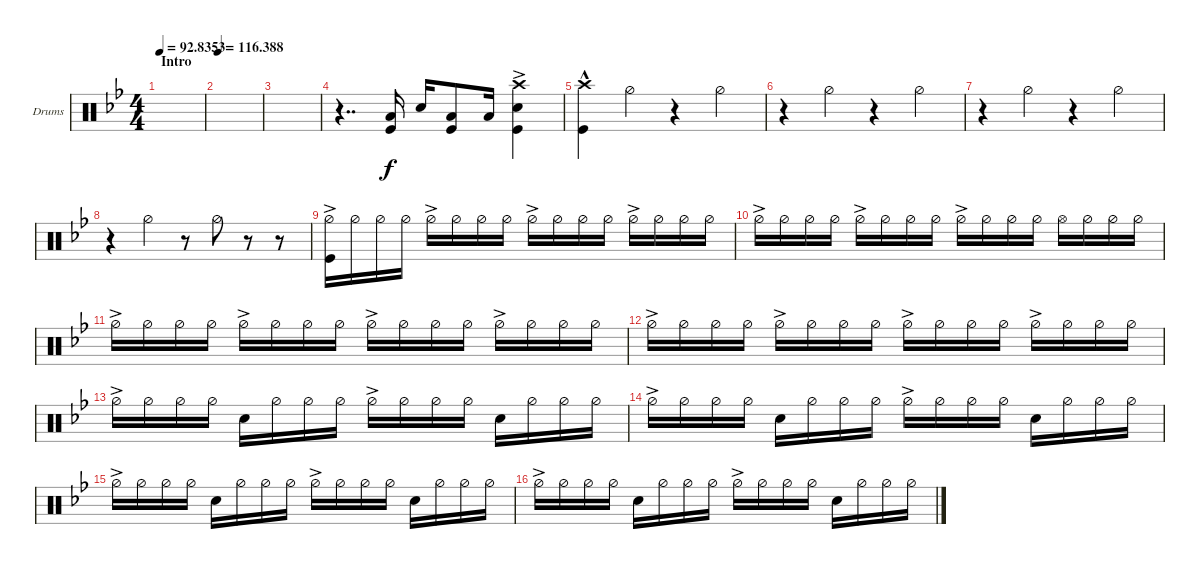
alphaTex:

\bracketExtendMode groupsimilarinstruments
\firstSystemTrackNameOrientation horizontal
\otherSystemsTrackNameOrientation horizontal
\track ("Drumkit" "Drums") {instrument percussion}
\staff {score}
\articulation defaults
\ts (4 4)
\section ("" "Intro")
\tempo
92.8353
\accidentals auto
\clef neutral
\ottava regular
\simile none
\ks gminor
|
\tempo
116.388 |
|
r.4{dd} ("Low Tom (hit)" "Kick (hit)").16 "Snare (hit) 2".16 ("Low Tom (hit)" "Kick (hit)").8 "Low Tom (hit)".16 ("Snare (hit) 2" "Kick (hit)" "Crash high (hit)"{ac}).4 |
("Kick (hit)" "Crash high (hit)"{hac}).4 "Hi-Hat (half)".4 r.4 "Hi-Hat (half)".4 |
r.4 "Hi-Hat (half)".4 r.4 "Hi-Hat (half)".4 |
r.4 "Hi-Hat (half)".4 r.4 "Hi-Hat (half)".4 |
r.4 "Hi-Hat (half)".4 r.8 "Hi-Hat (half)".8 r.8 r.8 |
("Hi-Hat (half)"{ac} "Kick (hit)").16 "Hi-Hat (half)".16 "Hi-Hat (half)".16 "Hi-Hat (half)".16 "Hi-Hat (half)"{ac}.16 "Hi-Hat (half)".16 "Hi-Hat (half)".16 "Hi-Hat (half)".16 "Hi-Hat (half)"{ac}.16 "Hi-Hat (half)".16 "Hi-Hat (half)".16 "Hi-Hat (half)".16 "Hi-Hat (half)"{ac}.16 "Hi-Hat (half)".16 "Hi-Hat (half)".16 "Hi-Hat (half)".16 |
"Hi-Hat (half)"{ac}.16 "Hi-Hat (half)".16 "Hi-Hat (half)".16 "Hi-Hat (half)".16 "Hi-Hat (half)"{ac}.16 "Hi-Hat (half)".16 "Hi-Hat (half)".16 "Hi-Hat (half)".16 "Hi-Hat (half)"{ac}.16 "Hi-Hat (half)".16 "Hi-Hat (half)".16 "Hi-Hat (half)".16 "Hi-Hat (open)".16 "Hi-Hat (half)".16 "Hi-Hat (half)".16 "Hi-Hat (half)".16 |
"Hi-Hat (half)"{ac}.16 "Hi-Hat (half)".16 "Hi-Hat (half)".16 "Hi-Hat (half)".16 "Hi-Hat (half)"{ac}.16 "Hi-Hat (half)".16 "Hi-Hat (half)".16 "Hi-Hat (half)".16 "Hi-Hat (half)"{ac}.16 "Hi-Hat (half)".16 "Hi-Hat (half)".16 "Hi-Hat (half)".16 "Hi-Hat (half)"{ac}.16 "Hi-Hat (half)".16 "Hi-Hat (half)".16 "Hi-Hat (half)".16 |
"Hi-Hat (half)"{ac}.16 "Hi-Hat (half)".16 "Hi-Hat (half)".16 "Hi-Hat (half)".16 "Hi-Hat (half)"{ac}.16 "Hi-Hat (half)".16 "Hi-Hat (half)".16 "Hi-Hat (half)".16 "Hi-Hat (half)"{ac}.16 "Hi-Hat (half)".16 "Hi-Hat (half)".16 "Hi-Hat (half)".16 "Hi-Hat (half)"{ac}.16 "Hi-Hat (half)".16 "Hi-Hat (half)".16 "Hi-Hat (half)".16 |
"Hi-Hat (half)"{ac}.16 "Hi-Hat (half)".16 "Hi-Hat (half)".16 "Hi-Hat (half)".16 "Snare (hit) 2".16 "Hi-Hat (half)".16 "Hi-Hat (half)".16 "Hi-Hat (half)".16 "Hi-Hat (half)"{ac}.16 "Hi-Hat (half)".16 "Hi-Hat (half)".16 "Hi-Hat (half)".16 "Snare (hit) 2".16 "Hi-Hat (half)".16 "Hi-Hat (half)".16 "Hi-Hat (half)".16 |
"Hi-Hat (half)"{ac}.16 "Hi-Hat (half)".16 "Hi-Hat (half)".16 "Hi-Hat (half)".16 "Snare (hit) 2".16 "Hi-Hat (half)".16 "Hi-Hat (half)".16 "Hi-Hat (half)".16 "Hi-Hat (half)"{ac}.16 "Hi-Hat (half)".16 "Hi-Hat (half)".16 "Hi-Hat (half)".16 "Snare (hit) 2".16 "Hi-Hat (half)".16 "Hi-Hat (half)".16 "Hi-Hat (half)".16 |
"Hi-Hat (half)"{ac}.16 "Hi-Hat (half)".16 "Hi-Hat (half)".16 "Hi-Hat (half)".16 "Snare (hit) 2".16 "Hi-Hat (half)".16 "Hi-Hat (half)".16 "Hi-Hat (half)".16 "Hi-Hat (half)"{ac}.16 "Hi-Hat (half)".16 "Hi-Hat (half)".16 "Hi-Hat (half)".16 "Snare (hit) 2".16 "Hi-Hat (half)".16 "Hi-Hat (half)".16 "Hi-Hat (half)".16 |
"Hi-Hat (half)"{ac}.16 "Hi-Hat (half)".16 "Hi-Hat (half)".16 "Hi-Hat (half)".16 "Snare (hit) 2".16 "Hi-Hat (half)".16 "Hi-Hat (half)".16 "Hi-Hat (half)".16 "Hi-Hat (half)"{ac}.16 "Hi-Hat (half)".16 "Hi-Hat (half)".16 "Hi-Hat (half)".16 "Snare (hit) 2".16 "Hi-Hat (half)".16 "Hi-Hat (half)".16 "Hi-Hat (half)".16
